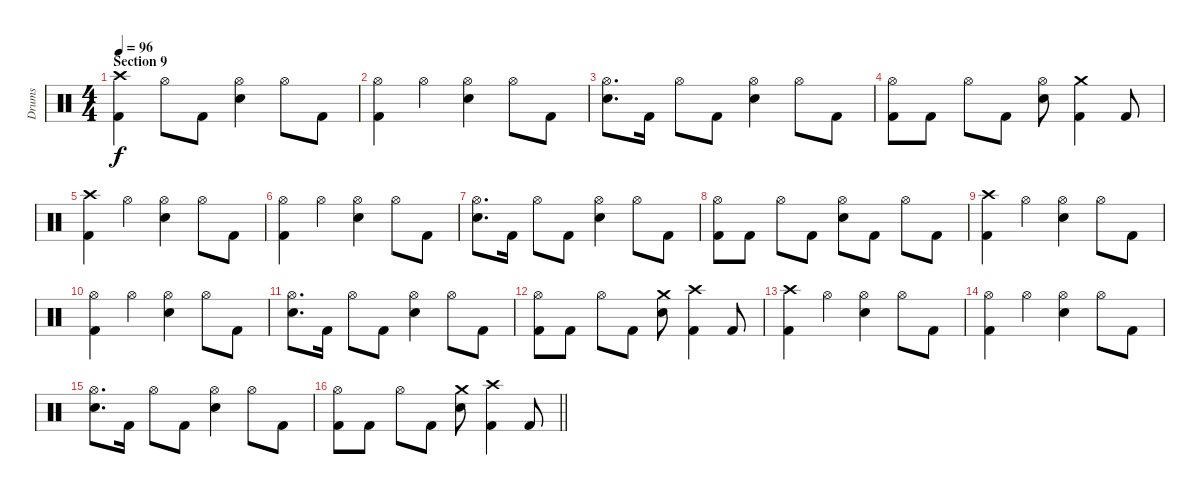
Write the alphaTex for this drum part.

\track ("Drums" "Drums") {instrument percussion}
\staff {score}
\articulation defaults
\ts (4 4)
\section ("" "Section 9")
\tempo 96
\clef neutral
\ks c
("Crash high (hit)" "Kick (hit) 2").4{dy f} "Hi-Hat (open)".8 "Kick (hit) 2".8 ("Hi-Hat (open)" "Electric Snare (hit)").4 "Hi-Hat (open)".8 "Kick (hit) 2".8 |
("Hi-Hat (open)" "Kick (hit) 2").4 "Hi-Hat (open)".4 ("Hi-Hat (open)" "Electric Snare (hit)").4 "Hi-Hat (open)".8 "Kick (hit) 2".8 |
("Hi-Hat (open)" "Electric Snare (hit)").8{d} "Kick (hit) 2".16 "Hi-Hat (open)".8 "Kick (hit) 2".8 ("Hi-Hat (open)" "Electric Snare (hit)").4 "Hi-Hat (open)".8 "Kick (hit) 2".8 |
("Hi-Hat (open)" "Kick (hit) 2").8 "Kick (hit) 2".8 "Hi-Hat (open)".8 "Kick (hit) 2".8 ("Hi-Hat (open)" "Electric Snare (hit)").8 ("Crash medium (hit)" "Kick (hit) 2").4 "Kick (hit) 2".8 |
("Crash high (hit)" "Kick (hit) 2").4 "Hi-Hat (open)".4 ("Hi-Hat (open)" "Electric Snare (hit)").4 "Hi-Hat (open)".8 "Kick (hit) 2".8 |
("Hi-Hat (open)" "Kick (hit) 2").4 "Hi-Hat (open)".4 ("Hi-Hat (open)" "Electric Snare (hit)").4 "Hi-Hat (open)".8 "Kick (hit) 2".8 |
("Hi-Hat (open)" "Electric Snare (hit)").8{d} "Kick (hit) 2".16 "Hi-Hat (open)".8 "Kick (hit) 2".8 ("Hi-Hat (open)" "Electric Snare (hit)").4 "Hi-Hat (open)".8 "Kick (hit) 2".8 |
("Hi-Hat (open)" "Kick (hit) 2").8 "Kick (hit) 2".8 "Hi-Hat (open)".8 "Kick (hit) 2".8 ("Hi-Hat (open)" "Electric Snare (hit)").8 "Kick (hit) 2".8 "Hi-Hat (open)".8 "Kick (hit) 2".8 |
("Crash high (hit)" "Kick (hit) 2").4 "Hi-Hat (open)".4 ("Hi-Hat (open)" "Electric Snare (hit)").4 "Hi-Hat (open)".8 "Kick (hit) 2".8 |
("Hi-Hat (open)" "Kick (hit) 2").4 "Hi-Hat (open)".4 ("Hi-Hat (open)" "Electric Snare (hit)").4 "Hi-Hat (open)".8 "Kick (hit) 2".8 |
("Hi-Hat (open)" "Electric Snare (hit)").8{d} "Kick (hit) 2".16 "Hi-Hat (open)".8 "Kick (hit) 2".8 ("Hi-Hat (open)" "Electric Snare (hit)").4 "Hi-Hat (open)".8 "Kick (hit) 2".8 |
("Hi-Hat (open)" "Kick (hit) 2").8 "Kick (hit) 2".8 "Hi-Hat (open)".8 "Kick (hit) 2".8 ("Crash medium (hit)" "Electric Snare (hit)").8 ("Crash high (hit)" "Kick (hit) 2").4 "Kick (hit) 2".8 |
("Crash high (hit)" "Kick (hit) 2").4 "Hi-Hat (open)".4 ("Hi-Hat (open)" "Electric Snare (hit)").4 "Hi-Hat (open)".8 "Kick (hit) 2".8 |
("Hi-Hat (open)" "Kick (hit) 2").4 "Hi-Hat (open)".4 ("Hi-Hat (open)" "Electric Snare (hit)").4 "Hi-Hat (open)".8 "Kick (hit) 2".8 |
("Hi-Hat (open)" "Electric Snare (hit)").8{d} "Kick (hit) 2".16 "Hi-Hat (open)".8 "Kick (hit) 2".8 ("Hi-Hat (open)" "Electric Snare (hit)").4 "Hi-Hat (open)".8 "Kick (hit) 2".8 |
\barLineRight lightlight
("Hi-Hat (open)" "Kick (hit) 2").8 "Kick (hit) 2".8 "Hi-Hat (open)".8 "Kick (hit) 2".8 ("Crash medium (hit)" "Electric Snare (hit)").8 ("Crash high (hit)" "Kick (hit) 2").4 "Kick (hit) 2".8
